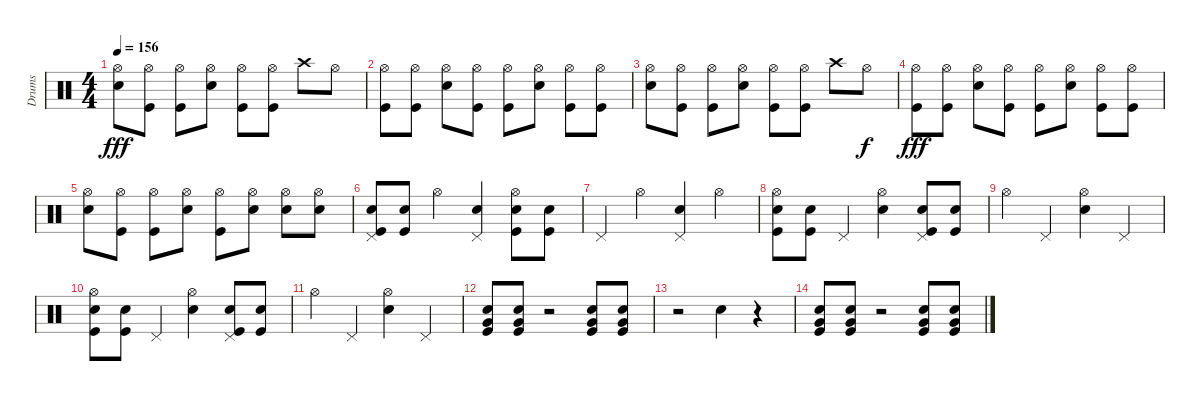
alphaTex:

\track ("Drums               " "Drums     ") {instrument percussion}
\staff {score}
\articulation defaults
\ts (4 4)
\tempo 156
\clef neutral
\ks c
("Hi-Hat (open)" "Snare (hit) 2").8{dy fff} ("Hi-Hat (open)" "Kick (hit)").8 ("Hi-Hat (open)" "Kick (hit)").8 ("Hi-Hat (open)" "Snare (hit) 2").8 ("Hi-Hat (open)" "Kick (hit)").8 ("Hi-Hat (open)" "Kick (hit)").8 "Crash high (hit)".8 "Hi-Hat (open)".8 |
("Kick (hit)" "Hi-Hat (open)").8 ("Kick (hit)" "Hi-Hat (open)").8 ("Hi-Hat (open)" "Snare (hit) 2").8 ("Hi-Hat (open)" "Kick (hit)").8 ("Hi-Hat (open)" "Kick (hit)").8 ("Hi-Hat (open)" "Snare (hit) 2").8 ("Hi-Hat (open)" "Kick (hit)").8 ("Hi-Hat (open)" "Kick (hit)").8 |
("Hi-Hat (open)" "Snare (hit) 2").8 ("Hi-Hat (open)" "Kick (hit)").8 ("Hi-Hat (open)" "Kick (hit)").8 ("Hi-Hat (open)" "Snare (hit) 2").8 ("Hi-Hat (open)" "Kick (hit)").8 ("Hi-Hat (open)" "Kick (hit)").8 "Crash high (hit)".8 "Hi-Hat (open)".8{dy f} |
("Kick (hit)" "Hi-Hat (open)").8{dy fff} ("Kick (hit)" "Hi-Hat (open)").8 ("Hi-Hat (open)" "Snare (hit) 2").8 ("Hi-Hat (open)" "Kick (hit)").8 ("Hi-Hat (open)" "Kick (hit)").8 ("Hi-Hat (open)" "Snare (hit) 2").8 ("Hi-Hat (open)" "Kick (hit)").8 ("Hi-Hat (open)" "Kick (hit)").8 |
("Hi-Hat (open)" "Snare (hit) 2").8 ("Hi-Hat (open)" "Kick (hit)").8 ("Hi-Hat (open)" "Kick (hit)").8 ("Hi-Hat (open)" "Snare (hit) 2").8 ("Hi-Hat (open)" "Kick (hit)").8 ("Hi-Hat (open)" "Snare (hit) 2").8 ("Hi-Hat (open)" "Snare (hit) 2").8 ("Hi-Hat (open)" "Snare (hit) 2").8 |
("Kick (hit)" "Pedal Hi-Hat (hit)" "Snare (hit) 2").8 ("Kick (hit)" "Snare (hit) 2").8 "Hi-Hat (open)".4 ("Snare (hit) 2" "Pedal Hi-Hat (hit)").4 ("Kick (hit)" "Hi-Hat (open)" "Snare (hit) 2").8 ("Kick (hit)" "Snare (hit) 2").8 |
"Pedal Hi-Hat (hit)".4 "Hi-Hat (open)".4 ("Pedal Hi-Hat (hit)" "Snare (hit) 2").4 "Hi-Hat (open)".4 |
("Hi-Hat (open)" "Kick (hit)" "Snare (hit) 2").8 ("Kick (hit)" "Snare (hit) 2").8 "Pedal Hi-Hat (hit)".4 ("Hi-Hat (open)" "Snare (hit) 2").4 ("Pedal Hi-Hat (hit)" "Snare (hit) 2" "Kick (hit)").8 ("Snare (hit) 2" "Kick (hit)").8 |
"Hi-Hat (open)".4 "Pedal Hi-Hat (hit)".4 ("Hi-Hat (open)" "Snare (hit) 2").4 "Pedal Hi-Hat (hit)".4 |
("Hi-Hat (open)" "Kick (hit)" "Snare (hit) 2").8 ("Kick (hit)" "Snare (hit) 2").8 "Pedal Hi-Hat (hit)".4 ("Hi-Hat (open)" "Snare (hit) 2").4 ("Pedal Hi-Hat (hit)" "Snare (hit) 2" "Kick (hit)").8 ("Snare (hit) 2" "Kick (hit)").8 |
"Hi-Hat (open)".4 "Pedal Hi-Hat (hit)".4 ("Hi-Hat (open)" "Snare (hit) 2").4 "Pedal Hi-Hat (hit)".4 |
("Kick (hit)" "Snare (hit) 2" "Very Low Tom (hit)").8 ("Kick (hit)" "Snare (hit) 2" "Very Low Tom (hit)").8 r.2 ("Snare (hit) 2" "Kick (hit)" "Very Low Tom (hit)").8 ("Snare (hit) 2" "Kick (hit)" "Very Low Tom (hit)").8 |
r.2 "Snare (hit) 2".4 r.4 |
("Kick (hit)" "Snare (hit) 2" "Very Low Tom (hit)").8 ("Kick (hit)" "Snare (hit) 2" "Very Low Tom (hit)").8 r.2 ("Snare (hit) 2" "Kick (hit)" "Very Low Tom (hit)").8 ("Snare (hit) 2" "Kick (hit)" "Very Low Tom (hit)").8
